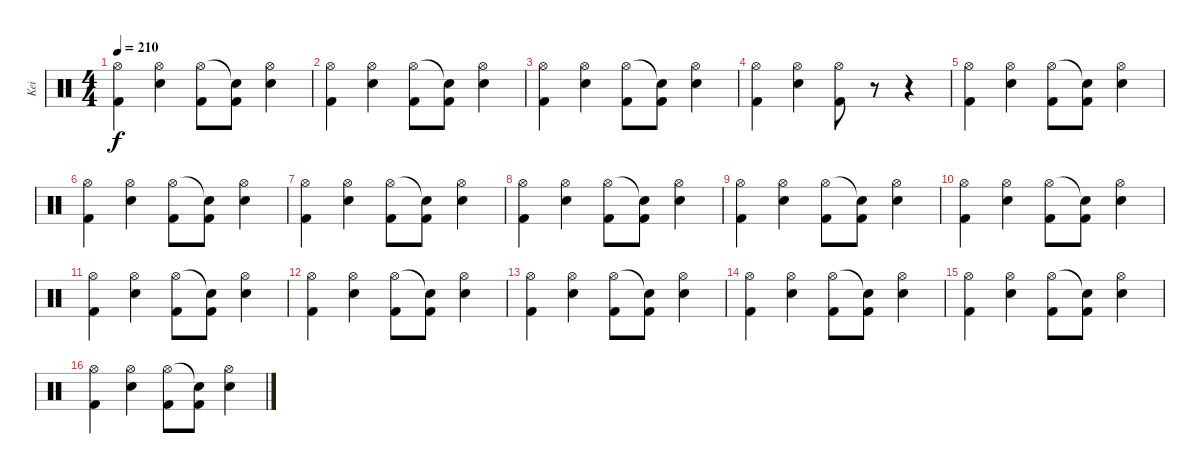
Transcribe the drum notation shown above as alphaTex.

\track ("Kei" "Kei") {instrument percussion}
\staff {score}
\articulation defaults
\ts (4 4)
\tempo 210
\clef neutral
\ks c
("Hi-Hat (open)" "Kick (hit) 2").4{dy f} ("Hi-Hat (open)" "Electric Snare (hit)").4 ("Hi-Hat (open)" "Kick (hit) 2").8 ("Snare (hit)"{t} "Kick (hit) 2").8 ("Hi-Hat (open)" "Electric Snare (hit)").4 |
("Hi-Hat (open)" "Kick (hit) 2").4 ("Hi-Hat (open)" "Electric Snare (hit)").4 ("Hi-Hat (open)" "Kick (hit) 2").8 ("Snare (hit)"{t} "Kick (hit) 2").8 ("Hi-Hat (open)" "Electric Snare (hit)").4 |
("Hi-Hat (open)" "Kick (hit) 2").4 ("Hi-Hat (open)" "Electric Snare (hit)").4 ("Hi-Hat (open)" "Kick (hit) 2").8 ("Snare (hit)"{t} "Kick (hit) 2").8 ("Hi-Hat (open)" "Electric Snare (hit)").4 |
("Hi-Hat (open)" "Kick (hit) 2").4 ("Hi-Hat (open)" "Electric Snare (hit)").4 ("Hi-Hat (open)" "Kick (hit) 2").8 r.8 r.4 |
("Hi-Hat (open)" "Kick (hit) 2").4 ("Hi-Hat (open)" "Electric Snare (hit)").4 ("Hi-Hat (open)" "Kick (hit) 2").8 ("Snare (hit)"{t} "Kick (hit) 2").8 ("Hi-Hat (open)" "Electric Snare (hit)").4 |
("Hi-Hat (open)" "Kick (hit) 2").4 ("Hi-Hat (open)" "Electric Snare (hit)").4 ("Hi-Hat (open)" "Kick (hit) 2").8 ("Snare (hit)"{t} "Kick (hit) 2").8 ("Hi-Hat (open)" "Electric Snare (hit)").4 |
("Hi-Hat (open)" "Kick (hit) 2").4 ("Hi-Hat (open)" "Electric Snare (hit)").4 ("Hi-Hat (open)" "Kick (hit) 2").8 ("Snare (hit)"{t} "Kick (hit) 2").8 ("Hi-Hat (open)" "Electric Snare (hit)").4 |
("Hi-Hat (open)" "Kick (hit) 2").4 ("Hi-Hat (open)" "Electric Snare (hit)").4 ("Hi-Hat (open)" "Kick (hit) 2").8 ("Snare (hit)"{t} "Kick (hit) 2").8 ("Hi-Hat (open)" "Electric Snare (hit)").4 |
("Hi-Hat (open)" "Kick (hit) 2").4 ("Hi-Hat (open)" "Electric Snare (hit)").4 ("Hi-Hat (open)" "Kick (hit) 2").8 ("Snare (hit)"{t} "Kick (hit) 2").8 ("Hi-Hat (open)" "Electric Snare (hit)").4 |
("Hi-Hat (open)" "Kick (hit) 2").4 ("Hi-Hat (open)" "Electric Snare (hit)").4 ("Hi-Hat (open)" "Kick (hit) 2").8 ("Snare (hit)"{t} "Kick (hit) 2").8 ("Hi-Hat (open)" "Electric Snare (hit)").4 |
("Hi-Hat (open)" "Kick (hit) 2").4 ("Hi-Hat (open)" "Electric Snare (hit)").4 ("Hi-Hat (open)" "Kick (hit) 2").8 ("Snare (hit)"{t} "Kick (hit) 2").8 ("Hi-Hat (open)" "Electric Snare (hit)").4 |
("Hi-Hat (open)" "Kick (hit) 2").4 ("Hi-Hat (open)" "Electric Snare (hit)").4 ("Hi-Hat (open)" "Kick (hit) 2").8 ("Snare (hit)"{t} "Kick (hit) 2").8 ("Hi-Hat (open)" "Electric Snare (hit)").4 |
("Hi-Hat (open)" "Kick (hit) 2").4 ("Hi-Hat (open)" "Electric Snare (hit)").4 ("Hi-Hat (open)" "Kick (hit) 2").8 ("Snare (hit)"{t} "Kick (hit) 2").8 ("Hi-Hat (open)" "Electric Snare (hit)").4 |
("Hi-Hat (open)" "Kick (hit) 2").4 ("Hi-Hat (open)" "Electric Snare (hit)").4 ("Hi-Hat (open)" "Kick (hit) 2").8 ("Snare (hit)"{t} "Kick (hit) 2").8 ("Hi-Hat (open)" "Electric Snare (hit)").4 |
("Hi-Hat (open)" "Kick (hit) 2").4 ("Hi-Hat (open)" "Electric Snare (hit)").4 ("Hi-Hat (open)" "Kick (hit) 2").8 ("Snare (hit)"{t} "Kick (hit) 2").8 ("Hi-Hat (open)" "Electric Snare (hit)").4 |
("Hi-Hat (open)" "Kick (hit) 2").4 ("Hi-Hat (open)" "Electric Snare (hit)").4 ("Hi-Hat (open)" "Kick (hit) 2").8 ("Snare (hit)"{t} "Kick (hit) 2").8 ("Hi-Hat (open)" "Electric Snare (hit)").4
